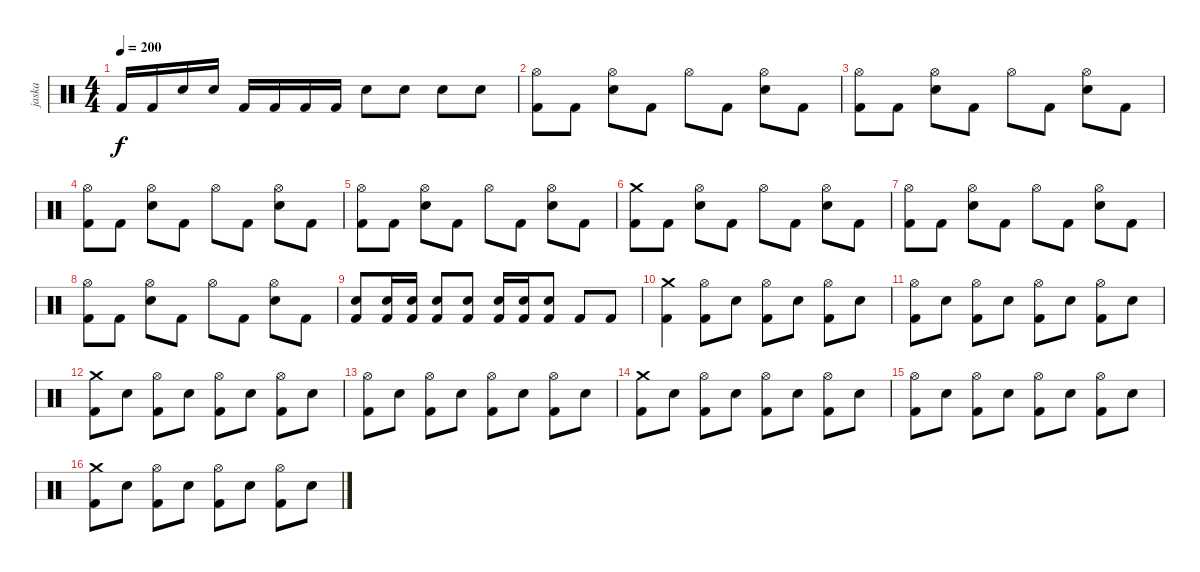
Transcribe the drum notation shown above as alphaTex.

\track ("jaska" "jaska") {instrument percussion}
\staff {score}
\articulation defaults
\ts (4 4)
\tempo 200
\clef neutral
\ks c "Kick (hit) 2".16{dy f} "Kick (hit) 2".16 "Electric Snare (hit)".16 "Electric Snare (hit)".16 "Kick (hit) 2".16 "Kick (hit) 2".16 "Kick (hit) 2".16 "Kick (hit) 2".16 "Electric Snare (hit)".8 "Electric Snare (hit)".8 "Electric Snare (hit)".8 "Electric Snare (hit)".8
|
("Hi-Hat (open)" "Kick (hit) 2").8 "Kick (hit) 2".8 ("Hi-Hat (open)" "Electric Snare (hit)").8 "Kick (hit) 2".8 "Hi-Hat (open)".8 "Kick (hit) 2".8 ("Hi-Hat (open)" "Electric Snare (hit)").8 "Kick (hit) 2".8 |
("Hi-Hat (open)" "Kick (hit) 2").8 "Kick (hit) 2".8 ("Hi-Hat (open)" "Electric Snare (hit)").8 "Kick (hit) 2".8 "Hi-Hat (open)".8 "Kick (hit) 2".8 ("Hi-Hat (open)" "Electric Snare (hit)").8 "Kick (hit) 2".8 |
("Hi-Hat (open)" "Kick (hit) 2").8 "Kick (hit) 2".8 ("Hi-Hat (open)" "Electric Snare (hit)").8 "Kick (hit) 2".8 "Hi-Hat (open)".8 "Kick (hit) 2".8 ("Hi-Hat (open)" "Electric Snare (hit)").8 "Kick (hit) 2".8 |
("Hi-Hat (open)" "Kick (hit) 2").8 "Kick (hit) 2".8 ("Hi-Hat (open)" "Electric Snare (hit)").8 "Kick (hit) 2".8 "Hi-Hat (open)".8 "Kick (hit) 2".8 ("Hi-Hat (open)" "Electric Snare (hit)").8 "Kick (hit) 2".8 |
("Crash medium (hit)" "Kick (hit) 2").8 "Kick (hit) 2".8 ("Hi-Hat (open)" "Electric Snare (hit)").8 "Kick (hit) 2".8 "Hi-Hat (open)".8 "Kick (hit) 2".8 ("Hi-Hat (open)" "Electric Snare (hit)").8 "Kick (hit) 2".8 |
("Hi-Hat (open)" "Kick (hit) 2").8 "Kick (hit) 2".8 ("Hi-Hat (open)" "Electric Snare (hit)").8 "Kick (hit) 2".8 "Hi-Hat (open)".8 "Kick (hit) 2".8 ("Hi-Hat (open)" "Electric Snare (hit)").8 "Kick (hit) 2".8 |
("Hi-Hat (open)" "Kick (hit) 2").8 "Kick (hit) 2".8 ("Hi-Hat (open)" "Electric Snare (hit)").8 "Kick (hit) 2".8 "Hi-Hat (open)".8 "Kick (hit) 2".8 ("Hi-Hat (open)" "Electric Snare (hit)").8 "Kick (hit) 2".8 |
("Electric Snare (hit)" "Kick (hit) 2").8 ("Electric Snare (hit)" "Kick (hit) 2").16 ("Electric Snare (hit)" "Kick (hit) 2").16 ("Electric Snare (hit)" "Kick (hit) 2").8 ("Electric Snare (hit)" "Kick (hit) 2").8 ("Electric Snare (hit)" "Kick (hit) 2").16 ("Electric Snare (hit)" "Kick (hit) 2").16 ("Electric Snare (hit)" "Kick (hit) 2").8 "Kick (hit) 2".8 "Kick (hit) 2".8 |
("Crash medium (hit)" "Kick (hit) 2").4 ("Hi-Hat (open)" "Kick (hit) 2").8 "Electric Snare (hit)".8 ("Hi-Hat (open)" "Kick (hit) 2").8 "Electric Snare (hit)".8 ("Hi-Hat (open)" "Kick (hit) 2").8 "Electric Snare (hit)".8 |
("Hi-Hat (open)" "Kick (hit) 2").8 "Electric Snare (hit)".8 ("Hi-Hat (open)" "Kick (hit) 2").8 "Electric Snare (hit)".8 ("Hi-Hat (open)" "Kick (hit) 2").8 "Electric Snare (hit)".8 ("Hi-Hat (open)" "Kick (hit) 2").8 "Electric Snare (hit)".8 |
("Crash medium (hit)" "Kick (hit) 2").8 "Electric Snare (hit)".8 ("Hi-Hat (open)" "Kick (hit) 2").8 "Electric Snare (hit)".8 ("Hi-Hat (open)" "Kick (hit) 2").8 "Electric Snare (hit)".8 ("Hi-Hat (open)" "Kick (hit) 2").8 "Electric Snare (hit)".8 |
("Hi-Hat (open)" "Kick (hit) 2").8 "Electric Snare (hit)".8 ("Hi-Hat (open)" "Kick (hit) 2").8 "Electric Snare (hit)".8 ("Hi-Hat (open)" "Kick (hit) 2").8 "Electric Snare (hit)".8 ("Hi-Hat (open)" "Kick (hit) 2").8 "Electric Snare (hit)".8 |
("Crash medium (hit)" "Kick (hit) 2").8 "Electric Snare (hit)".8 ("Hi-Hat (open)" "Kick (hit) 2").8 "Electric Snare (hit)".8 ("Hi-Hat (open)" "Kick (hit) 2").8 "Electric Snare (hit)".8 ("Hi-Hat (open)" "Kick (hit) 2").8 "Electric Snare (hit)".8 |
("Hi-Hat (open)" "Kick (hit) 2").8 "Electric Snare (hit)".8 ("Hi-Hat (open)" "Kick (hit) 2").8 "Electric Snare (hit)".8 ("Hi-Hat (open)" "Kick (hit) 2").8 "Electric Snare (hit)".8 ("Hi-Hat (open)" "Kick (hit) 2").8 "Electric Snare (hit)".8 |
("Crash medium (hit)" "Kick (hit) 2").8 "Electric Snare (hit)".8 ("Hi-Hat (open)" "Kick (hit) 2").8 "Electric Snare (hit)".8 ("Hi-Hat (open)" "Kick (hit) 2").8 "Electric Snare (hit)".8 ("Hi-Hat (open)" "Kick (hit) 2").8 "Electric Snare (hit)".8
